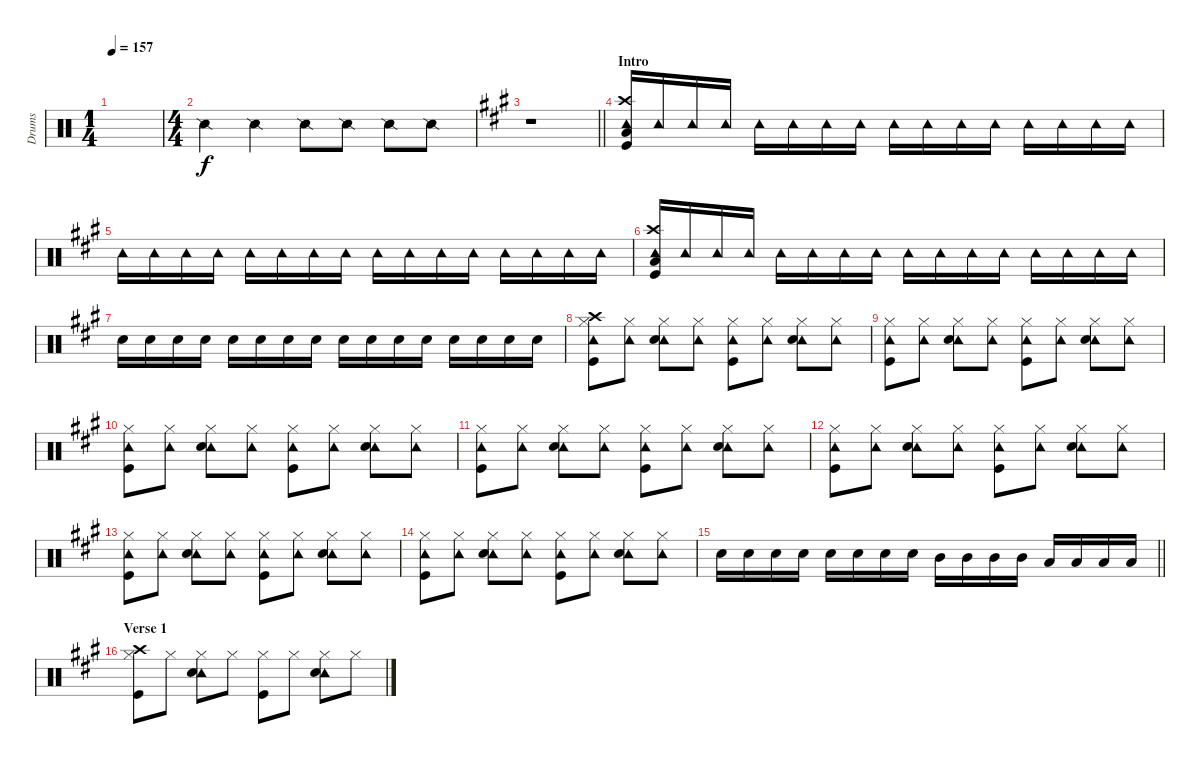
\track ("Drums" "Drums") {instrument percussion}
\staff {score}
\articulation defaults
\ts (1 4)
\tempo 157
\clef neutral
\ks c
|
\ts (4 4)
"Snare (side stick) 2".4 "Snare (side stick) 2".4 "Snare (side stick) 2".8 "Snare (side stick) 2".8 "Snare (side stick) 2".8 "Snare (side stick) 2".8 |
\barLineRight lightlight
\ks a
r.1 |
\section ("" "Intro")
("Tambourine (hit)" "Crash high (hit)" "Low Floor Tom (hit)" "Kick (hit)").16 "Tambourine (hit)".16 "Tambourine (hit)".16 "Tambourine (hit)".16 "Tambourine (hit)".16 "Tambourine (hit)".16 "Tambourine (hit)".16 "Tambourine (hit)".16 "Tambourine (hit)".16 "Tambourine (hit)".16 "Tambourine (hit)".16 "Tambourine (hit)".16 "Tambourine (hit)".16 "Tambourine (hit)".16 "Tambourine (hit)".16 "Tambourine (hit)".16 |
"Tambourine (hit)".16 "Tambourine (hit)".16 "Tambourine (hit)".16 "Tambourine (hit)".16 "Tambourine (hit)".16 "Tambourine (hit)".16 "Tambourine (hit)".16 "Tambourine (hit)".16 "Tambourine (hit)".16 "Tambourine (hit)".16 "Tambourine (hit)".16 "Tambourine (hit)".16 "Tambourine (hit)".16 "Tambourine (hit)".16 "Tambourine (hit)".16 "Tambourine (hit)".16 |
("Tambourine (hit)" "Crash high (hit)" "Low Floor Tom (hit)" "Kick (hit)").16 "Tambourine (hit)".16 "Tambourine (hit)".16 "Tambourine (hit)".16 "Tambourine (hit)".16 "Tambourine (hit)".16 "Tambourine (hit)".16 "Tambourine (hit)".16 "Tambourine (hit)".16 "Tambourine (hit)".16 "Tambourine (hit)".16 "Tambourine (hit)".16 "Tambourine (hit)".16 "Tambourine (hit)".16 "Tambourine (hit)".16 "Tambourine (hit)".16 |
"Electric Snare (hit)".16{volume 14} "Electric Snare (hit)".16 "Electric Snare (hit)".16 "Electric Snare (hit)".16 "Electric Snare (hit)".16 "Electric Snare (hit)".16 "Electric Snare (hit)".16 "Electric Snare (hit)".16 "Electric Snare (hit)".16 "Electric Snare (hit)".16 "Electric Snare (hit)".16 "Electric Snare (hit)".16 "Electric Snare (hit)".16 "Electric Snare (hit)".16 "Electric Snare (hit)".16 "Electric Snare (hit)".16 |
("Hi-Hat (closed)" "Crash high (hit)" "Tambourine (hit)" "Kick (hit)").8 ("Hi-Hat (closed)" "Tambourine (hit)").8 ("Hi-Hat (closed)" "Tambourine (hit)" "Electric Snare (hit)").8 ("Hi-Hat (closed)" "Tambourine (hit)").8 ("Hi-Hat (closed)" "Tambourine (hit)" "Kick (hit)").8 ("Hi-Hat (closed)" "Tambourine (hit)").8 ("Hi-Hat (closed)" "Tambourine (hit)" "Electric Snare (hit)").8 ("Hi-Hat (closed)" "Tambourine (hit)").8 |
("Hi-Hat (closed)" "Tambourine (hit)" "Kick (hit)").8 ("Hi-Hat (closed)" "Tambourine (hit)").8 ("Hi-Hat (closed)" "Tambourine (hit)" "Electric Snare (hit)").8 ("Hi-Hat (closed)" "Tambourine (hit)").8 ("Hi-Hat (closed)" "Tambourine (hit)" "Kick (hit)").8 ("Hi-Hat (closed)" "Tambourine (hit)").8 ("Hi-Hat (closed)" "Tambourine (hit)" "Electric Snare (hit)").8 ("Hi-Hat (closed)" "Tambourine (hit)").8 |
("Hi-Hat (closed)" "Tambourine (hit)" "Kick (hit)").8 ("Hi-Hat (closed)" "Tambourine (hit)").8 ("Hi-Hat (closed)" "Tambourine (hit)" "Electric Snare (hit)").8 ("Hi-Hat (closed)" "Tambourine (hit)").8 ("Hi-Hat (closed)" "Tambourine (hit)" "Kick (hit)").8 ("Hi-Hat (closed)" "Tambourine (hit)").8 ("Hi-Hat (closed)" "Tambourine (hit)" "Electric Snare (hit)").8 ("Hi-Hat (closed)" "Tambourine (hit)").8 |
("Hi-Hat (closed)" "Tambourine (hit)" "Kick (hit)").8 ("Hi-Hat (closed)" "Tambourine (hit)").8 ("Hi-Hat (closed)" "Tambourine (hit)" "Electric Snare (hit)").8 ("Hi-Hat (closed)" "Tambourine (hit)").8 ("Hi-Hat (closed)" "Tambourine (hit)" "Kick (hit)").8 ("Hi-Hat (closed)" "Tambourine (hit)").8 ("Hi-Hat (closed)" "Tambourine (hit)" "Electric Snare (hit)").8 ("Hi-Hat (closed)" "Tambourine (hit)").8 |
("Hi-Hat (closed)" "Tambourine (hit)" "Kick (hit)").8 ("Hi-Hat (closed)" "Tambourine (hit)").8 ("Hi-Hat (closed)" "Tambourine (hit)" "Electric Snare (hit)").8 ("Hi-Hat (closed)" "Tambourine (hit)").8 ("Hi-Hat (closed)" "Tambourine (hit)" "Kick (hit)").8 ("Hi-Hat (closed)" "Tambourine (hit)").8 ("Hi-Hat (closed)" "Tambourine (hit)" "Electric Snare (hit)").8 ("Hi-Hat (closed)" "Tambourine (hit)").8 |
("Hi-Hat (closed)" "Tambourine (hit)" "Kick (hit)").8 ("Hi-Hat (closed)" "Tambourine (hit)").8 ("Hi-Hat (closed)" "Tambourine (hit)" "Electric Snare (hit)").8 ("Hi-Hat (closed)" "Tambourine (hit)").8 ("Hi-Hat (closed)" "Tambourine (hit)" "Kick (hit)").8 ("Hi-Hat (closed)" "Tambourine (hit)").8 ("Hi-Hat (closed)" "Tambourine (hit)" "Electric Snare (hit)").8 ("Hi-Hat (closed)" "Tambourine (hit)").8 |
("Hi-Hat (closed)" "Tambourine (hit)" "Kick (hit)").8 ("Hi-Hat (closed)" "Tambourine (hit)").8 ("Hi-Hat (closed)" "Tambourine (hit)" "Electric Snare (hit)").8 ("Hi-Hat (closed)" "Tambourine (hit)").8 ("Hi-Hat (closed)" "Tambourine (hit)" "Kick (hit)").8 ("Hi-Hat (closed)" "Tambourine (hit)").8 ("Hi-Hat (closed)" "Tambourine (hit)" "Electric Snare (hit)").8 ("Hi-Hat (closed)" "Tambourine (hit)").8 |
\barLineRight lightlight "Electric Snare (hit)".16 "Electric Snare (hit)".16 "Electric Snare (hit)".16 "Electric Snare (hit)".16 "Electric Snare (hit)".16 "Electric Snare (hit)".16 "Electric Snare (hit)".16 "Electric Snare (hit)".16 "Mid Tom (hit)".16 "Mid Tom (hit)".16 "Mid Tom (hit)".16 "Mid Tom (hit)".16 "Low Tom (hit)".16 "Low Tom (hit)".16 "Low Tom (hit)".16 "Low Tom (hit)".16
|
\section ("" "Verse 1")
("Hi-Hat (closed)" "Crash high (hit)" "Kick (hit)").8 "Hi-Hat (closed)".8 ("Hi-Hat (closed)" "Tambourine (hit)" "Electric Snare (hit)").8 "Hi-Hat (closed)".8 ("Hi-Hat (closed)" "Kick (hit)").8 "Hi-Hat (closed)".8 ("Hi-Hat (closed)" "Tambourine (hit)" "Electric Snare (hit)").8 "Hi-Hat (closed)".8
